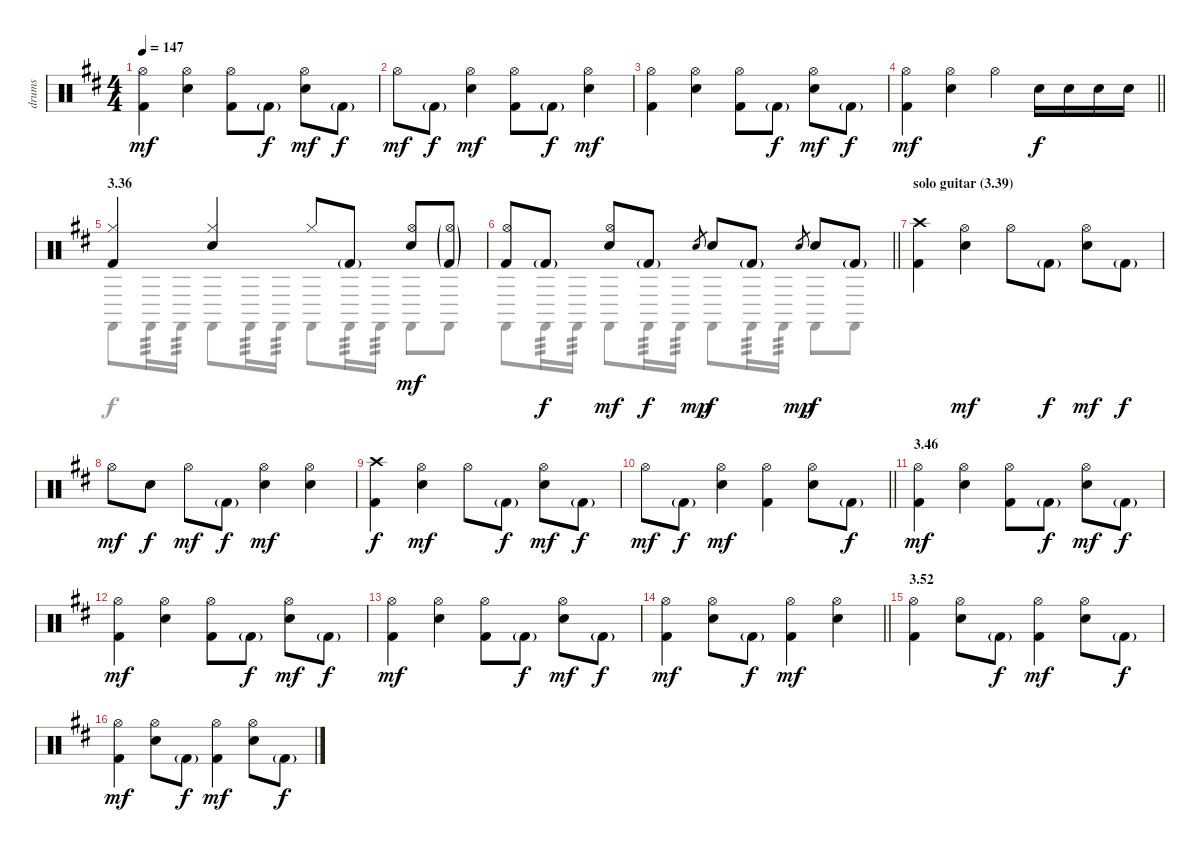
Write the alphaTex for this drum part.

\track ("drums" "drums") {instrument percussion}
\staff {score}
\articulation defaults
\voice
\ts (4 4)
\tempo 147
\clef neutral
\ks d
("Hi-Hat (open)" "Kick (hit) 2").4{dy mf} ("Hi-Hat (open)" "Electric Snare (hit)").4 ("Hi-Hat (open)" "Kick (hit) 2").8 "Kick (hit) 2"{g}.8{dy f} ("Hi-Hat (open)" "Electric Snare (hit)").8{dy mf} "Kick (hit) 2"{g}.8{dy f} |
"Hi-Hat (open)".8{dy mf} "Kick (hit) 2"{g}.8{dy f} ("Hi-Hat (open)" "Electric Snare (hit)").4{dy mf} ("Hi-Hat (open)" "Kick (hit) 2").8 "Kick (hit) 2"{g}.8{dy f} ("Hi-Hat (open)" "Electric Snare (hit)").4{dy mf} |
("Hi-Hat (open)" "Kick (hit) 2").4 ("Hi-Hat (open)" "Electric Snare (hit)").4 ("Hi-Hat (open)" "Kick (hit) 2").8 "Kick (hit) 2"{g}.8{dy f} ("Hi-Hat (open)" "Electric Snare (hit)").8{dy mf} "Kick (hit) 2"{g}.8{dy f} |
\barLineRight lightlight
("Hi-Hat (open)" "Kick (hit) 2").4{dy mf} ("Hi-Hat (open)" "Electric Snare (hit)").4 "Hi-Hat (open)".4 "Electric Snare (hit)".16{dy f} "Electric Snare (hit)".16 "Electric Snare (hit)".16 "Electric Snare (hit)".16 |
\section ("" "3.36")
("Hi-Hat (closed)" "Kick (hit) 2").4 ("Hi-Hat (closed)" "Electric Snare (hit)").4 "Hi-Hat (closed)".8 "Kick (hit) 2"{g}.8 ("Hi-Hat (open)" "Electric Snare (hit)").8{dy mf} ("Hi-Hat (open)"{g} "Kick (hit) 2"{g}).8 |
\barLineRight lightlight
("Hi-Hat (open)" "Kick (hit) 2").8 "Kick (hit) 2"{g}.8{dy f} ("Hi-Hat (open)" "Electric Snare (hit)").8{dy mf} "Kick (hit) 2"{g}.8{dy f} "Electric Snare (hit)".8{gr dy mp} "Electric Snare (hit)".8{dy f} "Kick (hit) 2"{g}.8 "Electric Snare (hit)".8{gr dy mp} "Electric Snare (hit)".8{dy f} "Kick (hit) 2"{g}.8 |
\section ("" "solo guitar (3.39)")
("Crash high (hit)" "Kick (hit) 2").4 ("Hi-Hat (open)" "Electric Snare (hit)").4{dy mf} "Hi-Hat (open)".8 "Kick (hit) 2"{g}.8{dy f} ("Hi-Hat (open)" "Electric Snare (hit)").8{dy mf} "Kick (hit) 2"{g}.8{dy f} |
"Hi-Hat (open)".8{dy mf} "Electric Snare (hit)".8{dy f} "Hi-Hat (open)".8{dy mf} "Kick (hit) 2"{g}.8{dy f} ("Hi-Hat (open)" "Electric Snare (hit)").4{dy mf} ("Hi-Hat (open)" "Electric Snare (hit)").4 |
("Crash high (hit)" "Kick (hit) 2").4{dy f} ("Hi-Hat (open)" "Electric Snare (hit)").4{dy mf} "Hi-Hat (open)".8 "Kick (hit) 2"{g}.8{dy f} ("Hi-Hat (open)" "Electric Snare (hit)").8{dy mf} "Kick (hit) 2"{g}.8{dy f} |
\barLineRight lightlight "Hi-Hat (open)".8{dy mf} "Kick (hit) 2"{g}.8{dy f}
("Hi-Hat (open)" "Electric Snare (hit)").4{dy mf} ("Hi-Hat (open)" "Kick (hit) 2").4 ("Hi-Hat (open)" "Electric Snare (hit)").8 "Kick (hit) 2"{g}.8{dy f} |
\section ("" "3.46")
("Hi-Hat (open)" "Kick (hit) 2").4{dy mf} ("Hi-Hat (open)" "Electric Snare (hit)").4 ("Hi-Hat (open)" "Kick (hit) 2").8 "Kick (hit) 2"{g}.8{dy f} ("Hi-Hat (open)" "Electric Snare (hit)").8{dy mf} "Kick (hit) 2"{g}.8{dy f} |
("Hi-Hat (open)" "Kick (hit) 2").4{dy mf} ("Hi-Hat (open)" "Electric Snare (hit)").4 ("Hi-Hat (open)" "Kick (hit) 2").8 "Kick (hit) 2"{g}.8{dy f} ("Hi-Hat (open)" "Electric Snare (hit)").8{dy mf} "Kick (hit) 2"{g}.8{dy f} |
("Hi-Hat (open)" "Kick (hit) 2").4{dy mf} ("Hi-Hat (open)" "Electric Snare (hit)").4 ("Hi-Hat (open)" "Kick (hit) 2").8 "Kick (hit) 2"{g}.8{dy f} ("Hi-Hat (open)" "Electric Snare (hit)").8{dy mf} "Kick (hit) 2"{g}.8{dy f} |
\barLineRight lightlight
("Hi-Hat (open)" "Kick (hit) 2").4{dy mf} ("Hi-Hat (open)" "Electric Snare (hit)").8 "Kick (hit) 2"{g}.8{dy f} ("Hi-Hat (open)" "Kick (hit) 2").4{dy mf} ("Hi-Hat (open)" "Electric Snare (hit)").4 |
\section ("" "3.52")
("Hi-Hat (open)" "Kick (hit) 2").4 ("Hi-Hat (open)" "Electric Snare (hit)").8 "Kick (hit) 2"{g}.8{dy f} ("Hi-Hat (open)" "Kick (hit) 2").4{dy mf} ("Hi-Hat (open)" "Electric Snare (hit)").8 "Kick (hit) 2"{g}.8{dy f} |
("Hi-Hat (open)" "Kick (hit) 2").4{dy mf} ("Hi-Hat (open)" "Electric Snare (hit)").8 "Kick (hit) 2"{g}.8{dy f} ("Hi-Hat (open)" "Kick (hit) 2").4{dy mf} ("Hi-Hat (open)" "Electric Snare (hit)").8 "Kick (hit) 2"{g}.8{dy f}
\voice
\clef neutral
\ottava regular
\simile none
\ks d
|
|
|
\barLineRight lightlight
|
"Castanets (hit)".8 "Castanets (hit)".16{tp 3} "Castanets (hit)".16{tp 3} "Castanets (hit)".8 "Castanets (hit)".16{tp 3} "Castanets (hit)".16{tp 3} "Castanets (hit)".8 "Castanets (hit)".16{tp 3} "Castanets (hit)".16{tp 3} "Castanets (hit)".8 "Castanets (hit)".8 |
\barLineRight lightlight "Castanets (hit)".8 "Castanets (hit)".16{tp 3} "Castanets (hit)".16{tp 3} "Castanets (hit)".8 "Castanets (hit)".16{tp 3} "Castanets (hit)".16{tp 3} "Castanets (hit)".8 "Castanets (hit)".16{tp 3} "Castanets (hit)".16{tp 3} "Castanets (hit)".8 "Castanets (hit)".8
|
|
|
|
\barLineRight lightlight
|
|
|
|
\barLineRight lightlight
|
|
